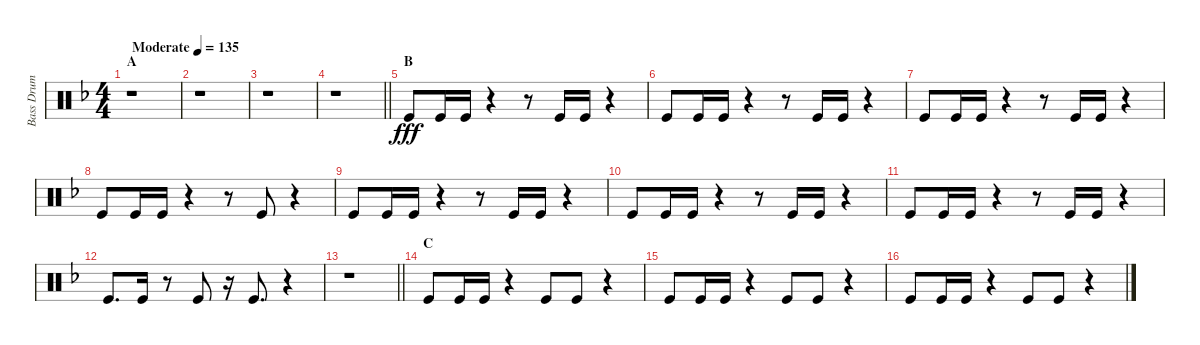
\track ("Bass Drum" "Bass Drum") {instrument percussion}
\staff {score}
\articulation defaults
\ts (4 4)
\section ("" "A")
\tempo (135 "Moderate")
\clef neutral
\ks f
r.1{dy fff} |
r.1 |
r.1 |
\barLineRight lightlight
r.1 |
\section ("" "B")
"Kick (hit)".8 "Kick (hit)".16 "Kick (hit)".16 r.4 r.8 "Kick (hit)".16 "Kick (hit)".16 r.4 |
"Kick (hit)".8 "Kick (hit)".16 "Kick (hit)".16 r.4 r.8 "Kick (hit)".16 "Kick (hit)".16 r.4 |
"Kick (hit)".8 "Kick (hit)".16 "Kick (hit)".16 r.4 r.8 "Kick (hit)".16 "Kick (hit)".16 r.4 |
"Kick (hit)".8 "Kick (hit)".16 "Kick (hit)".16 r.4 r.8 "Kick (hit)".8 r.4 |
"Kick (hit)".8 "Kick (hit)".16 "Kick (hit)".16 r.4 r.8 "Kick (hit)".16 "Kick (hit)".16 r.4 |
"Kick (hit)".8 "Kick (hit)".16 "Kick (hit)".16 r.4 r.8 "Kick (hit)".16 "Kick (hit)".16 r.4 |
"Kick (hit)".8 "Kick (hit)".16 "Kick (hit)".16 r.4 r.8 "Kick (hit)".16 "Kick (hit)".16 r.4 |
"Kick (hit)".8{d} "Kick (hit)".16 r.8 "Kick (hit)".8 r.16 "Kick (hit)".8{d} r.4 |
\barLineRight lightlight
r.1 |
\section ("" "C")
"Kick (hit)".8 "Kick (hit)".16 "Kick (hit)".16 r.4 "Kick (hit)".8 "Kick (hit)".8 r.4 |
"Kick (hit)".8 "Kick (hit)".16 "Kick (hit)".16 r.4 "Kick (hit)".8 "Kick (hit)".8 r.4 |
"Kick (hit)".8 "Kick (hit)".16 "Kick (hit)".16 r.4 "Kick (hit)".8 "Kick (hit)".8 r.4
